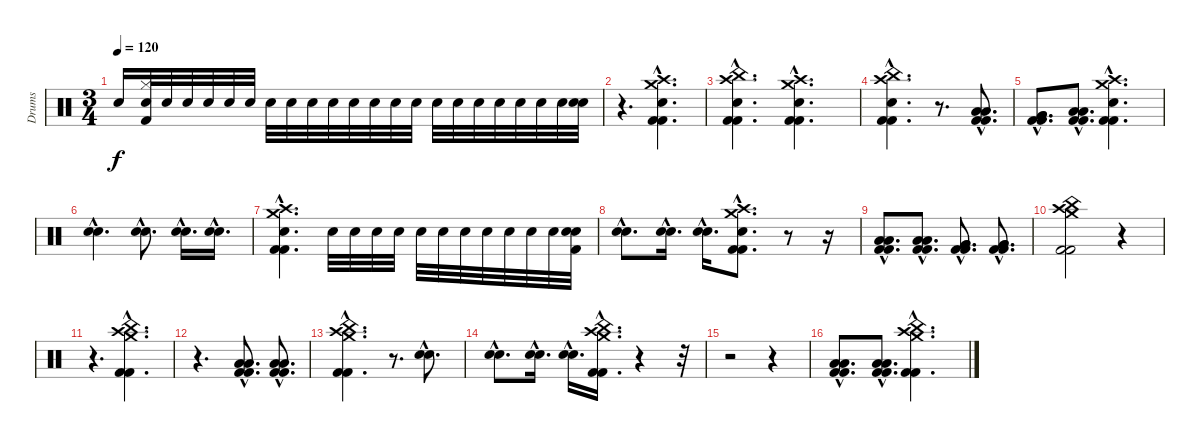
\track ("Drums" "Drums") {instrument percussion}
\staff {score}
\articulation defaults
\ts (3 4)
\tempo 120
\clef neutral
\ks c "Snare (hit) 2"{t}.16{dy f}
("Snare (hit) 2" "Hi-Hat (closed)" "Kick (hit) 2").32 "Snare (hit) 2".32 "Snare (hit) 2".32 "Snare (hit) 2".32 "Snare (hit) 2".32 "Snare (hit) 2".32 "Snare (hit) 2".32 "Snare (hit) 2".32 "Snare (hit) 2".32 "Snare (hit) 2".32 "Snare (hit) 2".32 "Snare (hit) 2".32 "Snare (hit) 2".32 "Snare (hit) 2".32 "Snare (hit) 2".32 "Snare (hit) 2".32 "Snare (hit) 2".32 "Snare (hit) 2".32 "Snare (hit) 2".32 "Snare (hit) 2".32 "Snare (hit) 2".32 ("Snare (hit) 2" "Electric Snare (hit)").32 |
r.4{d} ("Kick (hit) 2"{hac} "Snare (hit) 2"{hac} "Crash high (hit)"{hac} "Crash medium (hit)"{hac} "Kick (hit) 2"{hac}).4{d} |
("Kick (hit) 2"{hac} "Snare (hit) 2"{hac} "Crash high (hit)"{hac} "China (hit)"{hac} "Kick (hit) 2"{hac}).4{d} ("Kick (hit) 2"{hac} "Snare (hit) 2"{hac} "Crash high (hit)"{hac} "Crash medium (hit)"{hac} "Kick (hit) 2"{hac}).4{d} |
("Kick (hit) 2"{hac} "Snare (hit) 2"{hac} "Crash high (hit)"{hac} "China (hit)"{hac} "Kick (hit) 2"{hac}).4{d} r.8{d} ("Kick (hit) 2"{hac} "Low Tom (hit)"{hac} "Low Tom (hit)"{hac} "Kick (hit) 2"{hac}).8{d} |
("Kick (hit) 2"{hac} "Very Low Tom (hit)"{hac} "Very Low Tom (hit)"{hac} "Kick (hit) 2"{hac}).8{d} ("Kick (hit) 2"{hac} "Low Floor Tom (hit)"{hac} "Low Floor Tom (hit)"{hac} "Kick (hit) 2"{hac}).8{d} ("Kick (hit) 2"{hac} "Snare (hit) 2"{hac} "Crash high (hit)"{hac} "Crash medium (hit)"{hac} "Kick (hit) 2"{hac}).4{d} |
("Snare (hit) 2"{hac} "Electric Snare (hit)"{hac}).4{d} ("Snare (hit) 2"{hac} "Electric Snare (hit)"{hac}).8{d} ("Snare (hit) 2"{hac} "Electric Snare (hit)"{hac}).16{d} ("Snare (hit) 2"{hac} "Electric Snare (hit)"{hac}).16{d} |
("Kick (hit) 2"{hac} "Snare (hit) 2"{hac} "Crash high (hit)"{hac} "Crash medium (hit)"{hac} "Kick (hit) 2"{hac}).4{d} "Snare (hit) 2".32 "Snare (hit) 2".32 "Snare (hit) 2".32 "Snare (hit) 2".32 "Snare (hit) 2".32 "Snare (hit) 2".32 "Snare (hit) 2".32 "Snare (hit) 2".32 "Snare (hit) 2".32 "Snare (hit) 2".32 "Snare (hit) 2".32 ("Snare (hit) 2" "Electric Snare (hit)" "Kick (hit) 2").32 |
("Snare (hit) 2"{hac} "Electric Snare (hit)"{hac}).8{d} ("Snare (hit) 2"{hac} "Electric Snare (hit)"{hac}).16{d} ("Snare (hit) 2"{hac} "Electric Snare (hit)"{hac}).16{d} ("Kick (hit) 2"{hac} "Snare (hit) 2"{hac} "Crash high (hit)"{hac} "Crash medium (hit)"{hac} "Kick (hit) 2"{hac}).8{d} r.8 r.16 |
("Kick (hit) 2"{hac} "Low Tom (hit)"{hac} "Low Tom (hit)"{hac} "Kick (hit) 2"{hac}).8{d} ("Kick (hit) 2"{hac} "Low Tom (hit)"{hac} "Low Tom (hit)"{hac} "Kick (hit) 2"{hac}).8{d} ("Kick (hit) 2"{hac} "Very Low Tom (hit)"{hac} "Very Low Tom (hit)"{hac} "Kick (hit) 2"{hac}).8{d} ("Kick (hit) 2"{hac} "Very Low Tom (hit)"{hac} "Very Low Tom (hit)"{hac} "Kick (hit) 2"{hac}).8{d} |
("Kick (hit) 2" "China (hit)" "Crash high (hit)" "Crash medium (hit)" "Kick (hit) 2").2 r.4 |
r.4{d} ("Kick (hit) 2"{hac} "China (hit)"{hac} "Crash high (hit)"{hac} "Crash medium (hit)"{hac} "Kick (hit) 2"{hac}).4{d} |
r.4{d} ("Kick (hit) 2"{hac} "Low Tom (hit)"{hac} "Low Tom (hit)"{hac} "Kick (hit) 2"{hac}).8{d} ("Kick (hit) 2"{hac} "Low Tom (hit)"{hac} "Low Tom (hit)"{hac} "Kick (hit) 2"{hac}).8{d} |
("Kick (hit) 2"{hac} "China (hit)"{hac} "Crash high (hit)"{hac} "Crash medium (hit)"{hac} "Kick (hit) 2"{hac}).4{d} r.8{d} ("Snare (hit) 2"{hac} "Electric Snare (hit)"{hac}).8{d} |
("Snare (hit) 2"{hac} "Electric Snare (hit)"{hac}).8{d} ("Snare (hit) 2"{hac} "Electric Snare (hit)"{hac}).16{d} ("Snare (hit) 2"{hac} "Electric Snare (hit)"{hac}).16{d} ("Kick (hit) 2"{hac} "China (hit)"{hac} "Crash high (hit)"{hac} "Crash medium (hit)"{hac} "Kick (hit) 2"{hac}).16{d} r.4 r.32 |
r.2 r.4 |
("Low Tom (hit)"{hac} "Low Tom (hit)"{hac} "Kick (hit) 2"{hac} "Kick (hit) 2"{hac}).8{d} ("Low Tom (hit)"{hac} "Low Tom (hit)"{hac} "Kick (hit) 2"{hac} "Kick (hit) 2"{hac}).8{d} ("Kick (hit) 2"{hac} "China (hit)"{hac} "Crash high (hit)"{hac} "Crash medium (hit)"{hac} "Kick (hit) 2"{hac}).4{d}
